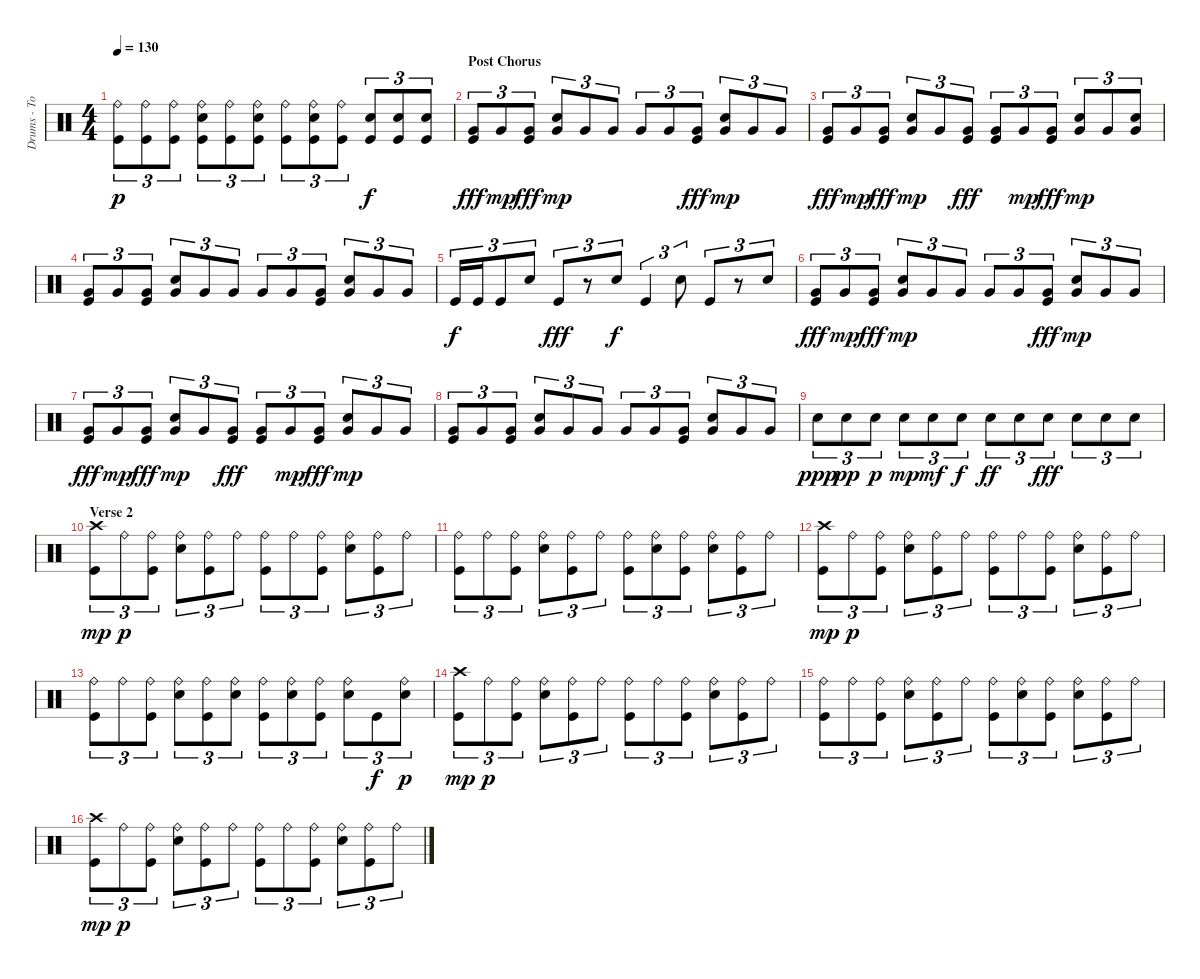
\track ("Drums - Tomas" "Drums - To") {instrument percussion}
\staff {score}
\articulation defaults
\ts (4 4)
\tempo 130
\clef neutral
\ks c
("Ride (bell)" "Kick (hit)").8{tu (3 2) dy p} ("Ride (bell)" "Kick (hit)").8{tu (3 2)} ("Ride (bell)" "Kick (hit)").8{tu (3 2)} ("Ride (bell)" "Electric Snare (hit)" "Kick (hit)").8{tu (3 2)} ("Ride (bell)" "Kick (hit)").8{tu (3 2)} ("Ride (bell)" "Electric Snare (hit)" "Kick (hit)").8{tu (3 2)} ("Ride (bell)" "Kick (hit)").8{tu (3 2)} ("Ride (bell)" "Electric Snare (hit)" "Kick (hit)").8{tu (3 2)} ("Ride (bell)" "Kick (hit)").8{tu (3 2)} ("Electric Snare (hit)" "Kick (hit)").8{tu (3 2) dy f} ("Electric Snare (hit)" "Kick (hit)").8{tu (3 2)} ("Electric Snare (hit)" "Kick (hit)").8{tu (3 2)} |
\section ("" "Post Chorus")
("Very Low Tom (hit)" "Kick (hit)").8{tu (3 2) dy fff} "Very Low Tom (hit)".8{tu (3 2) dy mp} ("Very Low Tom (hit)" "Kick (hit)").8{tu (3 2) dy fff} ("Very Low Tom (hit)" "Electric Snare (hit)").8{tu (3 2) dy mp} "Very Low Tom (hit)".8{tu (3 2)} "Very Low Tom (hit)".8{tu (3 2)} "Very Low Tom (hit)".8{tu (3 2)} "Very Low Tom (hit)".8{tu (3 2)} ("Very Low Tom (hit)" "Kick (hit)").8{tu (3 2) dy fff} ("Very Low Tom (hit)" "Electric Snare (hit)").8{tu (3 2) dy mp} "Very Low Tom (hit)".8{tu (3 2)} "Very Low Tom (hit)".8{tu (3 2)} |
("Very Low Tom (hit)" "Kick (hit)").8{tu (3 2) dy fff} "Very Low Tom (hit)".8{tu (3 2) dy mp} ("Very Low Tom (hit)" "Kick (hit)").8{tu (3 2) dy fff} ("Very Low Tom (hit)" "Electric Snare (hit)").8{tu (3 2) dy mp} "Very Low Tom (hit)".8{tu (3 2)} ("Very Low Tom (hit)" "Kick (hit)").8{tu (3 2) dy fff} ("Very Low Tom (hit)" "Kick (hit)").8{tu (3 2)} "Very Low Tom (hit)".8{tu (3 2) dy mp} ("Very Low Tom (hit)" "Kick (hit)").8{tu (3 2) dy fff} ("Very Low Tom (hit)" "Electric Snare (hit)").8{tu (3 2) dy mp} "Very Low Tom (hit)".8{tu (3 2)} ("Very Low Tom (hit)" "Electric Snare (hit)").8{tu (3 2)} |
("Very Low Tom (hit)" "Kick (hit)").8{tu (3 2)} "Very Low Tom (hit)".8{tu (3 2)} ("Very Low Tom (hit)" "Kick (hit)").8{tu (3 2)} ("Very Low Tom (hit)" "Electric Snare (hit)").8{tu (3 2)} "Very Low Tom (hit)".8{tu (3 2)} "Very Low Tom (hit)".8{tu (3 2)} "Very Low Tom (hit)".8{tu (3 2)} "Very Low Tom (hit)".8{tu (3 2)} ("Very Low Tom (hit)" "Kick (hit)").8{tu (3 2)} ("Very Low Tom (hit)" "Electric Snare (hit)").8{tu (3 2)} "Very Low Tom (hit)".8{tu (3 2)} "Very Low Tom (hit)".8{tu (3 2)} |
"Kick (hit)".16{tu (3 2) dy f} "Kick (hit)".16{tu (3 2)} "Kick (hit)".8{tu (3 2)} "Electric Snare (hit)".8{tu (3 2)} "Kick (hit)".8{tu (3 2) dy fff} r.8{tu (3 2)} "Electric Snare (hit)".8{tu (3 2) dy f} "Kick (hit)".4{tu (3 2)} "Electric Snare (hit)".8{tu (3 2)} "Kick (hit)".8{tu (3 2)} r.8{tu (3 2)} "Electric Snare (hit)".8{tu (3 2)} |
("Very Low Tom (hit)" "Kick (hit)").8{tu (3 2) dy fff} "Very Low Tom (hit)".8{tu (3 2) dy mp} ("Very Low Tom (hit)" "Kick (hit)").8{tu (3 2) dy fff} ("Very Low Tom (hit)" "Electric Snare (hit)").8{tu (3 2) dy mp} "Very Low Tom (hit)".8{tu (3 2)} "Very Low Tom (hit)".8{tu (3 2)} "Very Low Tom (hit)".8{tu (3 2)} "Very Low Tom (hit)".8{tu (3 2)} ("Very Low Tom (hit)" "Kick (hit)").8{tu (3 2) dy fff} ("Very Low Tom (hit)" "Electric Snare (hit)").8{tu (3 2) dy mp} "Very Low Tom (hit)".8{tu (3 2)} "Very Low Tom (hit)".8{tu (3 2)} |
("Very Low Tom (hit)" "Kick (hit)").8{tu (3 2) dy fff} "Very Low Tom (hit)".8{tu (3 2) dy mp} ("Very Low Tom (hit)" "Kick (hit)").8{tu (3 2) dy fff} ("Very Low Tom (hit)" "Electric Snare (hit)").8{tu (3 2) dy mp} "Very Low Tom (hit)".8{tu (3 2)} ("Very Low Tom (hit)" "Kick (hit)").8{tu (3 2) dy fff} ("Very Low Tom (hit)" "Kick (hit)").8{tu (3 2)} "Very Low Tom (hit)".8{tu (3 2) dy mp} ("Very Low Tom (hit)" "Kick (hit)").8{tu (3 2) dy fff} ("Very Low Tom (hit)" "Electric Snare (hit)").8{tu (3 2) dy mp} "Very Low Tom (hit)".8{tu (3 2)} "Very Low Tom (hit)".8{tu (3 2)} |
("Very Low Tom (hit)" "Kick (hit)").8{tu (3 2)} "Very Low Tom (hit)".8{tu (3 2)} ("Very Low Tom (hit)" "Kick (hit)").8{tu (3 2)} ("Very Low Tom (hit)" "Electric Snare (hit)").8{tu (3 2)} "Very Low Tom (hit)".8{tu (3 2)} "Very Low Tom (hit)".8{tu (3 2)} "Very Low Tom (hit)".8{tu (3 2)} "Very Low Tom (hit)".8{tu (3 2)} ("Very Low Tom (hit)" "Kick (hit)").8{tu (3 2)} ("Very Low Tom (hit)" "Electric Snare (hit)").8{tu (3 2)} "Very Low Tom (hit)".8{tu (3 2)} "Very Low Tom (hit)".8{tu (3 2)} |
"Electric Snare (hit)".8{tu (3 2) dy ppp} "Electric Snare (hit)".8{tu (3 2) dy pp} "Electric Snare (hit)".8{tu (3 2) dy p} "Electric Snare (hit)".8{tu (3 2) dy mp} "Electric Snare (hit)".8{tu (3 2) dy mf} "Electric Snare (hit)".8{tu (3 2) dy f} "Electric Snare (hit)".8{tu (3 2) dy ff} "Electric Snare (hit)".8{tu (3 2)} "Electric Snare (hit)".8{tu (3 2) dy fff} "Electric Snare (hit)".8{tu (3 2)} "Electric Snare (hit)".8{tu (3 2)} "Electric Snare (hit)".8{tu (3 2)} |
\section ("" "Verse 2")
("Crash high (hit)" "Kick (hit)").8{tu (3 2) dy mp} "Ride (bell)".8{tu (3 2) dy p} ("Ride (bell)" "Kick (hit)").8{tu (3 2)} ("Ride (bell)" "Electric Snare (hit)").8{tu (3 2)} ("Ride (bell)" "Kick (hit)").8{tu (3 2)} "Ride (bell)".8{tu (3 2)} ("Ride (bell)" "Kick (hit)").8{tu (3 2)} "Ride (bell)".8{tu (3 2)} ("Ride (bell)" "Kick (hit)").8{tu (3 2)} ("Ride (bell)" "Electric Snare (hit)").8{tu (3 2)} ("Ride (bell)" "Kick (hit)").8{tu (3 2)} "Ride (bell)".8{tu (3 2)} |
("Ride (bell)" "Kick (hit)").8{tu (3 2)} "Ride (bell)".8{tu (3 2)} ("Ride (bell)" "Kick (hit)").8{tu (3 2)} ("Ride (bell)" "Electric Snare (hit)").8{tu (3 2)} ("Ride (bell)" "Kick (hit)").8{tu (3 2)} "Ride (bell)".8{tu (3 2)} ("Ride (bell)" "Kick (hit)").8{tu (3 2)} ("Ride (bell)" "Electric Snare (hit)").8{tu (3 2)} ("Ride (bell)" "Kick (hit)").8{tu (3 2)} ("Ride (bell)" "Electric Snare (hit)").8{tu (3 2)} ("Ride (bell)" "Kick (hit)").8{tu (3 2)} "Ride (bell)".8{tu (3 2)} |
("Crash high (hit)" "Kick (hit)").8{tu (3 2) dy mp} "Ride (bell)".8{tu (3 2) dy p} ("Ride (bell)" "Kick (hit)").8{tu (3 2)} ("Ride (bell)" "Electric Snare (hit)").8{tu (3 2)} ("Ride (bell)" "Kick (hit)").8{tu (3 2)} "Ride (bell)".8{tu (3 2)} ("Ride (bell)" "Kick (hit)").8{tu (3 2)} "Ride (bell)".8{tu (3 2)} ("Ride (bell)" "Kick (hit)").8{tu (3 2)} ("Ride (bell)" "Electric Snare (hit)").8{tu (3 2)} ("Ride (bell)" "Kick (hit)").8{tu (3 2)} "Ride (bell)".8{tu (3 2)} |
("Ride (bell)" "Kick (hit)").8{tu (3 2)} "Ride (bell)".8{tu (3 2)} ("Ride (bell)" "Kick (hit)").8{tu (3 2)} ("Ride (bell)" "Electric Snare (hit)").8{tu (3 2)} ("Ride (bell)" "Kick (hit)").8{tu (3 2)} ("Ride (bell)" "Electric Snare (hit)").8{tu (3 2)} ("Ride (bell)" "Kick (hit)").8{tu (3 2)} ("Ride (bell)" "Electric Snare (hit)").8{tu (3 2)} ("Ride (bell)" "Kick (hit)").8{tu (3 2)} ("Ride (bell)" "Electric Snare (hit)").8{tu (3 2)} "Kick (hit)".8{tu (3 2) dy f} ("Ride (bell)" "Electric Snare (hit)").8{tu (3 2) dy p} |
("Crash high (hit)" "Kick (hit)").8{tu (3 2) dy mp} "Ride (bell)".8{tu (3 2) dy p} ("Ride (bell)" "Kick (hit)").8{tu (3 2)} ("Ride (bell)" "Electric Snare (hit)").8{tu (3 2)} ("Ride (bell)" "Kick (hit)").8{tu (3 2)} "Ride (bell)".8{tu (3 2)} ("Ride (bell)" "Kick (hit)").8{tu (3 2)} "Ride (bell)".8{tu (3 2)} ("Ride (bell)" "Kick (hit)").8{tu (3 2)} ("Ride (bell)" "Electric Snare (hit)").8{tu (3 2)} ("Ride (bell)" "Kick (hit)").8{tu (3 2)} "Ride (bell)".8{tu (3 2)} |
("Ride (bell)" "Kick (hit)").8{tu (3 2)} "Ride (bell)".8{tu (3 2)} ("Ride (bell)" "Kick (hit)").8{tu (3 2)} ("Ride (bell)" "Electric Snare (hit)").8{tu (3 2)} ("Ride (bell)" "Kick (hit)").8{tu (3 2)} "Ride (bell)".8{tu (3 2)} ("Ride (bell)" "Kick (hit)").8{tu (3 2)} ("Ride (bell)" "Electric Snare (hit)").8{tu (3 2)} ("Ride (bell)" "Kick (hit)").8{tu (3 2)} ("Ride (bell)" "Electric Snare (hit)").8{tu (3 2)} ("Ride (bell)" "Kick (hit)").8{tu (3 2)} "Ride (bell)".8{tu (3 2)} |
("Crash high (hit)" "Kick (hit)").8{tu (3 2) dy mp} "Ride (bell)".8{tu (3 2) dy p} ("Ride (bell)" "Kick (hit)").8{tu (3 2)} ("Ride (bell)" "Electric Snare (hit)").8{tu (3 2)} ("Ride (bell)" "Kick (hit)").8{tu (3 2)} "Ride (bell)".8{tu (3 2)} ("Ride (bell)" "Kick (hit)").8{tu (3 2)} "Ride (bell)".8{tu (3 2)} ("Ride (bell)" "Kick (hit)").8{tu (3 2)} ("Ride (bell)" "Electric Snare (hit)").8{tu (3 2)} ("Ride (bell)" "Kick (hit)").8{tu (3 2)} "Ride (bell)".8{tu (3 2)}
